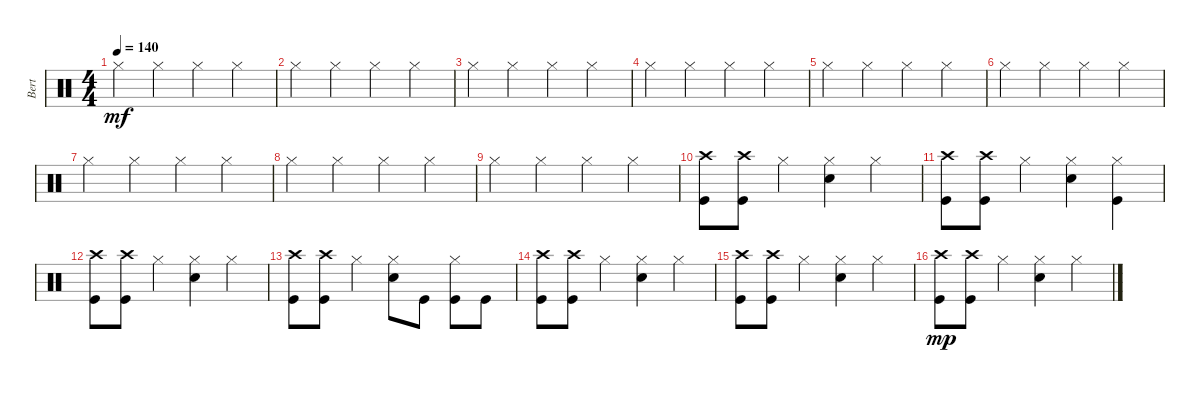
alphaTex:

\track ("Bert" "Bert") {instrument percussion}
\staff {score}
\articulation defaults
\ts (4 4)
\tempo 140
\clef neutral
\ks c "Hi-Hat (closed)".4{dy mf} "Hi-Hat (closed)".4 "Hi-Hat (closed)".4 "Hi-Hat (closed)".4
|
"Hi-Hat (closed)".4 "Hi-Hat (closed)".4 "Hi-Hat (closed)".4 "Hi-Hat (closed)".4 |
"Hi-Hat (closed)".4 "Hi-Hat (closed)".4 "Hi-Hat (closed)".4 "Hi-Hat (closed)".4 |
"Hi-Hat (closed)".4 "Hi-Hat (closed)".4 "Hi-Hat (closed)".4 "Hi-Hat (closed)".4 |
"Hi-Hat (closed)".4 "Hi-Hat (closed)".4 "Hi-Hat (closed)".4 "Hi-Hat (closed)".4 |
"Hi-Hat (closed)".4 "Hi-Hat (closed)".4 "Hi-Hat (closed)".4 "Hi-Hat (closed)".4 |
"Hi-Hat (closed)".4 "Hi-Hat (closed)".4 "Hi-Hat (closed)".4 "Hi-Hat (closed)".4 |
"Hi-Hat (closed)".4 "Hi-Hat (closed)".4 "Hi-Hat (closed)".4 "Hi-Hat (closed)".4 |
"Hi-Hat (closed)".4 "Hi-Hat (closed)".4 "Hi-Hat (closed)".4 "Hi-Hat (closed)".4 |
("Kick (hit)" "Crash high (hit)").8 ("Crash high (hit)" "Kick (hit)").8 "Hi-Hat (closed)".4 ("Hi-Hat (closed)" "Electric Snare (hit)").4 "Hi-Hat (closed)".4 |
("Crash high (hit)" "Kick (hit)").8 ("Kick (hit)" "Crash high (hit)").8 "Hi-Hat (closed)".4 ("Electric Snare (hit)" "Hi-Hat (closed)").4 ("Kick (hit)" "Hi-Hat (closed)").4 |
("Kick (hit)" "Crash high (hit)").8 ("Crash high (hit)" "Kick (hit)").8 "Hi-Hat (closed)".4 ("Hi-Hat (closed)" "Electric Snare (hit)").4 "Hi-Hat (closed)".4 |
("Kick (hit)" "Crash high (hit)").8 ("Kick (hit)" "Crash high (hit)").8 "Hi-Hat (closed)".4 ("Electric Snare (hit)" "Hi-Hat (closed)").8 "Kick (hit)".8 ("Hi-Hat (closed)" "Kick (hit)").8 "Kick (hit)".8 |
("Crash high (hit)" "Kick (hit)").8 ("Kick (hit)" "Crash high (hit)").8 "Hi-Hat (closed)".4 ("Electric Snare (hit)" "Hi-Hat (closed)").4 "Hi-Hat (closed)".4 |
("Kick (hit)" "Crash high (hit)").8 ("Crash high (hit)" "Kick (hit)").8 "Hi-Hat (closed)".4 ("Electric Snare (hit)" "Hi-Hat (closed)").4 "Hi-Hat (closed)".4 |
("Kick (hit)" "Crash high (hit)").8{dy mp} ("Kick (hit)" "Crash high (hit)").8 "Hi-Hat (closed)".4 ("Electric Snare (hit)" "Hi-Hat (closed)").4 "Hi-Hat (closed)".4
